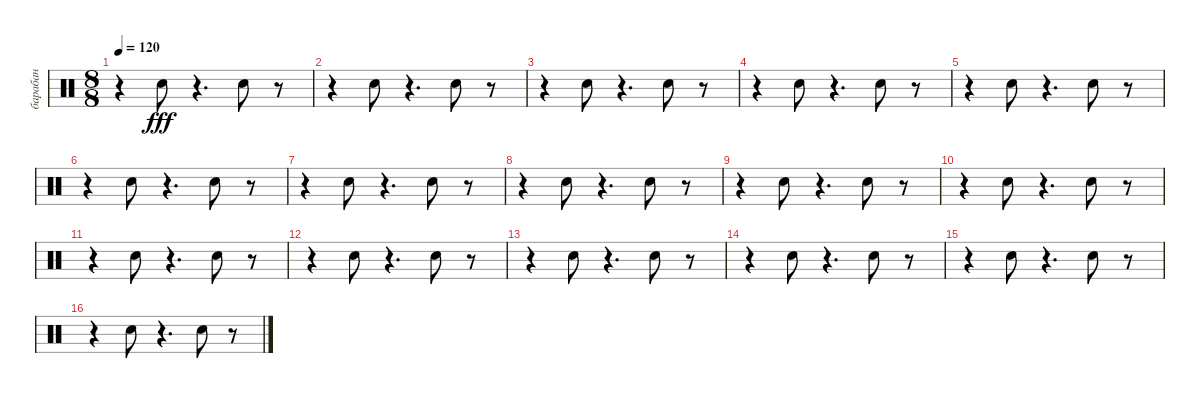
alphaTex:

\track ("барабан" "барабан") {instrument percussion}
\staff {score}
\articulation defaults
\ts (8 8)
\tempo 120
\clef neutral
\ks c
r.4{dy fff} "Snare (hit) 2".8 r.4{d} "Snare (hit) 2".8 r.8 |
r.4 "Snare (hit) 2".8 r.4{d} "Snare (hit) 2".8 r.8 |
r.4 "Snare (hit) 2".8 r.4{d} "Snare (hit) 2".8 r.8 |
r.4 "Snare (hit) 2".8 r.4{d} "Snare (hit) 2".8 r.8 |
r.4 "Snare (hit) 2".8 r.4{d} "Snare (hit) 2".8 r.8 |
r.4 "Snare (hit) 2".8 r.4{d} "Snare (hit) 2".8 r.8 |
r.4 "Snare (hit) 2".8 r.4{d} "Snare (hit) 2".8 r.8 |
r.4 "Snare (hit) 2".8 r.4{d} "Snare (hit) 2".8 r.8 |
r.4 "Snare (hit) 2".8 r.4{d} "Snare (hit) 2".8 r.8 |
r.4 "Snare (hit) 2".8 r.4{d} "Snare (hit) 2".8 r.8 |
r.4 "Snare (hit) 2".8 r.4{d} "Snare (hit) 2".8 r.8 |
r.4 "Snare (hit) 2".8 r.4{d} "Snare (hit) 2".8 r.8 |
r.4 "Snare (hit) 2".8 r.4{d} "Snare (hit) 2".8 r.8 |
r.4 "Snare (hit) 2".8 r.4{d} "Snare (hit) 2".8 r.8 |
r.4 "Snare (hit) 2".8 r.4{d} "Snare (hit) 2".8 r.8 |
r.4 "Snare (hit) 2".8 r.4{d} "Snare (hit) 2".8 r.8
